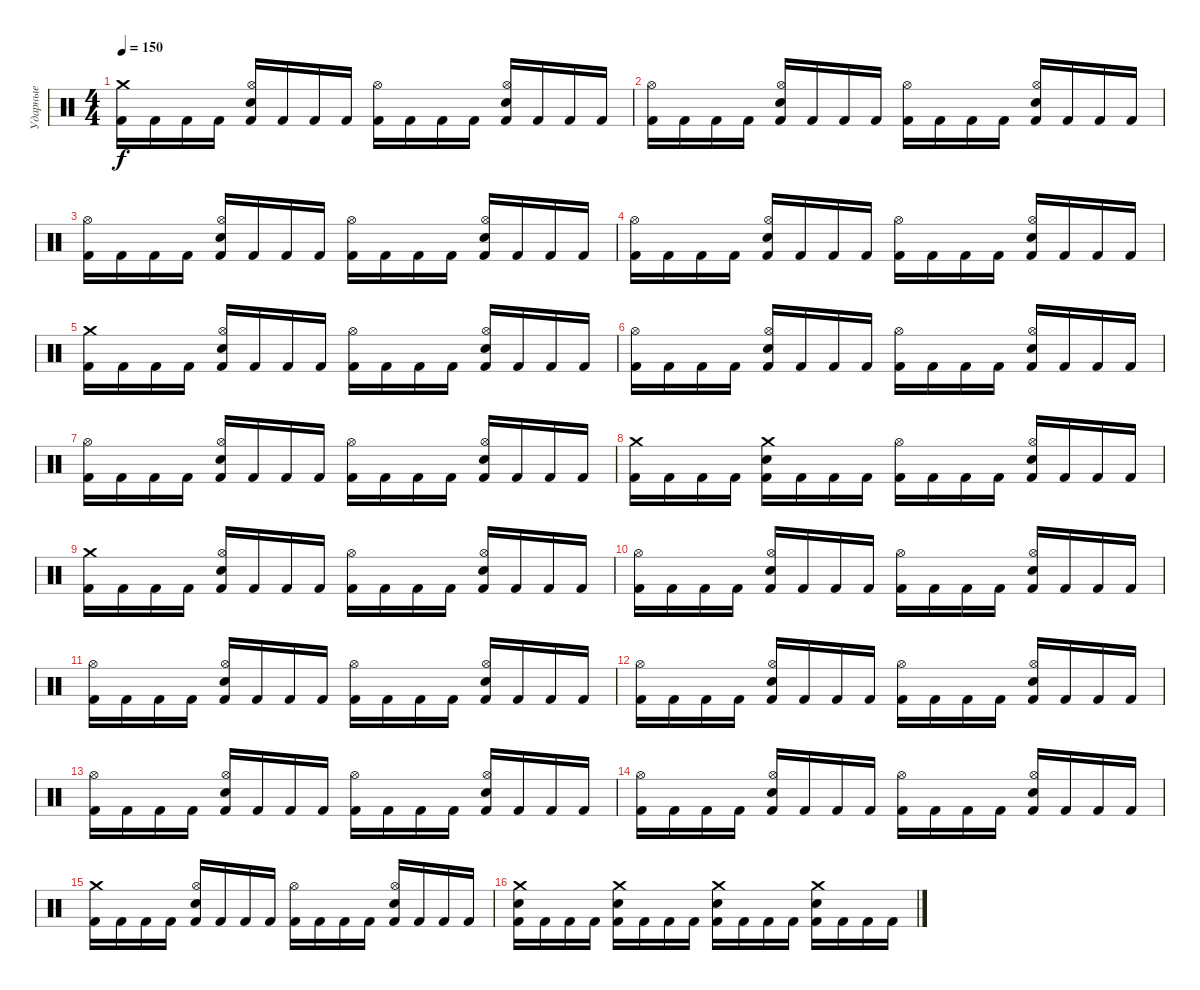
\track ("Ударные" "Ударные") {instrument percussion}
\staff {score}
\articulation defaults
\ts (4 4)
\tempo 150
\clef neutral
\ks c
("Crash medium (hit)" "Kick (hit) 2").16{dy f} "Kick (hit) 2".16 "Kick (hit) 2".16 "Kick (hit) 2".16 ("Hi-Hat (open)" "Electric Snare (hit)" "Kick (hit) 2").16 "Kick (hit) 2".16 "Kick (hit) 2".16 "Kick (hit) 2".16 ("Hi-Hat (open)" "Kick (hit) 2").16 "Kick (hit) 2".16 "Kick (hit) 2".16 "Kick (hit) 2".16 ("Hi-Hat (open)" "Electric Snare (hit)" "Kick (hit) 2").16 "Kick (hit) 2".16 "Kick (hit) 2".16 "Kick (hit) 2".16 |
("Hi-Hat (open)" "Kick (hit) 2").16 "Kick (hit) 2".16 "Kick (hit) 2".16 "Kick (hit) 2".16 ("Hi-Hat (open)" "Electric Snare (hit)" "Kick (hit) 2").16 "Kick (hit) 2".16 "Kick (hit) 2".16 "Kick (hit) 2".16 ("Hi-Hat (open)" "Kick (hit) 2").16 "Kick (hit) 2".16 "Kick (hit) 2".16 "Kick (hit) 2".16 ("Hi-Hat (open)" "Electric Snare (hit)" "Kick (hit) 2").16 "Kick (hit) 2".16 "Kick (hit) 2".16 "Kick (hit) 2".16 |
("Hi-Hat (open)" "Kick (hit) 2").16 "Kick (hit) 2".16 "Kick (hit) 2".16 "Kick (hit) 2".16 ("Hi-Hat (open)" "Electric Snare (hit)" "Kick (hit) 2").16 "Kick (hit) 2".16 "Kick (hit) 2".16 "Kick (hit) 2".16 ("Hi-Hat (open)" "Kick (hit) 2").16 "Kick (hit) 2".16 "Kick (hit) 2".16 "Kick (hit) 2".16 ("Hi-Hat (open)" "Electric Snare (hit)" "Kick (hit) 2").16 "Kick (hit) 2".16 "Kick (hit) 2".16 "Kick (hit) 2".16 |
("Hi-Hat (open)" "Kick (hit) 2").16 "Kick (hit) 2".16 "Kick (hit) 2".16 "Kick (hit) 2".16 ("Hi-Hat (open)" "Electric Snare (hit)" "Kick (hit) 2").16 "Kick (hit) 2".16 "Kick (hit) 2".16 "Kick (hit) 2".16 ("Hi-Hat (open)" "Kick (hit) 2").16 "Kick (hit) 2".16 "Kick (hit) 2".16 "Kick (hit) 2".16 ("Hi-Hat (open)" "Electric Snare (hit)" "Kick (hit) 2").16 "Kick (hit) 2".16 "Kick (hit) 2".16 "Kick (hit) 2".16 |
("Crash medium (hit)" "Kick (hit) 2").16 "Kick (hit) 2".16 "Kick (hit) 2".16 "Kick (hit) 2".16 ("Hi-Hat (open)" "Electric Snare (hit)" "Kick (hit) 2").16 "Kick (hit) 2".16 "Kick (hit) 2".16 "Kick (hit) 2".16 ("Hi-Hat (open)" "Kick (hit) 2").16 "Kick (hit) 2".16 "Kick (hit) 2".16 "Kick (hit) 2".16 ("Hi-Hat (open)" "Electric Snare (hit)" "Kick (hit) 2").16 "Kick (hit) 2".16 "Kick (hit) 2".16 "Kick (hit) 2".16 |
("Hi-Hat (open)" "Kick (hit) 2").16 "Kick (hit) 2".16 "Kick (hit) 2".16 "Kick (hit) 2".16 ("Hi-Hat (open)" "Electric Snare (hit)" "Kick (hit) 2").16 "Kick (hit) 2".16 "Kick (hit) 2".16 "Kick (hit) 2".16 ("Hi-Hat (open)" "Kick (hit) 2").16 "Kick (hit) 2".16 "Kick (hit) 2".16 "Kick (hit) 2".16 ("Hi-Hat (open)" "Electric Snare (hit)" "Kick (hit) 2").16 "Kick (hit) 2".16 "Kick (hit) 2".16 "Kick (hit) 2".16 |
("Hi-Hat (open)" "Kick (hit) 2").16 "Kick (hit) 2".16 "Kick (hit) 2".16 "Kick (hit) 2".16 ("Hi-Hat (open)" "Electric Snare (hit)" "Kick (hit) 2").16 "Kick (hit) 2".16 "Kick (hit) 2".16 "Kick (hit) 2".16 ("Hi-Hat (open)" "Kick (hit) 2").16 "Kick (hit) 2".16 "Kick (hit) 2".16 "Kick (hit) 2".16 ("Hi-Hat (open)" "Electric Snare (hit)" "Kick (hit) 2").16 "Kick (hit) 2".16 "Kick (hit) 2".16 "Kick (hit) 2".16 |
("Crash medium (hit)" "Kick (hit) 2").16 "Kick (hit) 2".16 "Kick (hit) 2".16 "Kick (hit) 2".16 ("Crash medium (hit)" "Electric Snare (hit)" "Kick (hit) 2").16 "Kick (hit) 2".16 "Kick (hit) 2".16 "Kick (hit) 2".16 ("Hi-Hat (open)" "Kick (hit) 2").16 "Kick (hit) 2".16 "Kick (hit) 2".16 "Kick (hit) 2".16 ("Hi-Hat (open)" "Electric Snare (hit)" "Kick (hit) 2").16 "Kick (hit) 2".16 "Kick (hit) 2".16 "Kick (hit) 2".16 |
("Crash medium (hit)" "Kick (hit) 2").16 "Kick (hit) 2".16 "Kick (hit) 2".16 "Kick (hit) 2".16 ("Hi-Hat (open)" "Electric Snare (hit)" "Kick (hit) 2").16 "Kick (hit) 2".16 "Kick (hit) 2".16 "Kick (hit) 2".16 ("Hi-Hat (open)" "Kick (hit) 2").16 "Kick (hit) 2".16 "Kick (hit) 2".16 "Kick (hit) 2".16 ("Hi-Hat (open)" "Electric Snare (hit)" "Kick (hit) 2").16 "Kick (hit) 2".16 "Kick (hit) 2".16 "Kick (hit) 2".16 |
("Hi-Hat (open)" "Kick (hit) 2").16 "Kick (hit) 2".16 "Kick (hit) 2".16 "Kick (hit) 2".16 ("Hi-Hat (open)" "Electric Snare (hit)" "Kick (hit) 2").16 "Kick (hit) 2".16 "Kick (hit) 2".16 "Kick (hit) 2".16 ("Hi-Hat (open)" "Kick (hit) 2").16 "Kick (hit) 2".16 "Kick (hit) 2".16 "Kick (hit) 2".16 ("Hi-Hat (open)" "Electric Snare (hit)" "Kick (hit) 2").16 "Kick (hit) 2".16 "Kick (hit) 2".16 "Kick (hit) 2".16 |
("Hi-Hat (open)" "Kick (hit) 2").16 "Kick (hit) 2".16 "Kick (hit) 2".16 "Kick (hit) 2".16 ("Hi-Hat (open)" "Electric Snare (hit)" "Kick (hit) 2").16 "Kick (hit) 2".16 "Kick (hit) 2".16 "Kick (hit) 2".16 ("Hi-Hat (open)" "Kick (hit) 2").16 "Kick (hit) 2".16 "Kick (hit) 2".16 "Kick (hit) 2".16 ("Hi-Hat (open)" "Electric Snare (hit)" "Kick (hit) 2").16 "Kick (hit) 2".16 "Kick (hit) 2".16 "Kick (hit) 2".16 |
("Hi-Hat (open)" "Kick (hit) 2").16 "Kick (hit) 2".16 "Kick (hit) 2".16 "Kick (hit) 2".16 ("Hi-Hat (open)" "Electric Snare (hit)" "Kick (hit) 2").16 "Kick (hit) 2".16 "Kick (hit) 2".16 "Kick (hit) 2".16 ("Hi-Hat (open)" "Kick (hit) 2").16 "Kick (hit) 2".16 "Kick (hit) 2".16 "Kick (hit) 2".16 ("Hi-Hat (open)" "Electric Snare (hit)" "Kick (hit) 2").16 "Kick (hit) 2".16 "Kick (hit) 2".16 "Kick (hit) 2".16 |
("Hi-Hat (open)" "Kick (hit) 2").16 "Kick (hit) 2".16 "Kick (hit) 2".16 "Kick (hit) 2".16 ("Hi-Hat (open)" "Electric Snare (hit)" "Kick (hit) 2").16 "Kick (hit) 2".16 "Kick (hit) 2".16 "Kick (hit) 2".16 ("Hi-Hat (open)" "Kick (hit) 2").16 "Kick (hit) 2".16 "Kick (hit) 2".16 "Kick (hit) 2".16 ("Hi-Hat (open)" "Electric Snare (hit)" "Kick (hit) 2").16 "Kick (hit) 2".16 "Kick (hit) 2".16 "Kick (hit) 2".16 |
("Hi-Hat (open)" "Kick (hit) 2").16 "Kick (hit) 2".16 "Kick (hit) 2".16 "Kick (hit) 2".16 ("Hi-Hat (open)" "Electric Snare (hit)" "Kick (hit) 2").16 "Kick (hit) 2".16 "Kick (hit) 2".16 "Kick (hit) 2".16 ("Hi-Hat (open)" "Kick (hit) 2").16 "Kick (hit) 2".16 "Kick (hit) 2".16 "Kick (hit) 2".16 ("Hi-Hat (open)" "Electric Snare (hit)" "Kick (hit) 2").16 "Kick (hit) 2".16 "Kick (hit) 2".16 "Kick (hit) 2".16 |
("Crash medium (hit)" "Kick (hit) 2").16 "Kick (hit) 2".16 "Kick (hit) 2".16 "Kick (hit) 2".16 ("Hi-Hat (open)" "Electric Snare (hit)" "Kick (hit) 2").16 "Kick (hit) 2".16 "Kick (hit) 2".16 "Kick (hit) 2".16 ("Hi-Hat (open)" "Kick (hit) 2").16 "Kick (hit) 2".16 "Kick (hit) 2".16 "Kick (hit) 2".16 ("Hi-Hat (open)" "Electric Snare (hit)" "Kick (hit) 2").16 "Kick (hit) 2".16 "Kick (hit) 2".16 "Kick (hit) 2".16 |
("Crash medium (hit)" "Electric Snare (hit)" "Kick (hit) 2").16 "Kick (hit) 2".16 "Kick (hit) 2".16 "Kick (hit) 2".16 ("Crash medium (hit)" "Electric Snare (hit)" "Kick (hit) 2").16 "Kick (hit) 2".16 "Kick (hit) 2".16 "Kick (hit) 2".16 ("Crash medium (hit)" "Electric Snare (hit)" "Kick (hit) 2").16 "Kick (hit) 2".16 "Kick (hit) 2".16 "Kick (hit) 2".16 ("Crash medium (hit)" "Electric Snare (hit)" "Kick (hit) 2").16 "Kick (hit) 2".16 "Kick (hit) 2".16 "Kick (hit) 2".16
